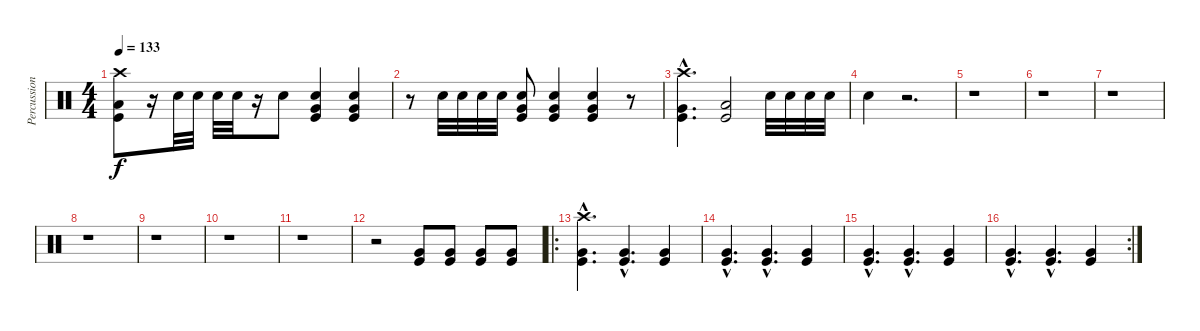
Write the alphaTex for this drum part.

\track ("Percussion" "Percussion") {instrument percussion}
\staff {score}
\articulation defaults
\ts (4 4)
\tempo 133
\clef neutral
\ks c
("Crash high (hit)" "Low Floor Tom (hit)" "Kick (hit)").8{dy f} r.16 "Snare (hit) 2".32 "Snare (hit) 2".32 "Snare (hit) 2".32 "Snare (hit) 2".32 r.16 "Snare (hit) 2".8 ("Snare (hit) 2" "Very Low Tom (hit)" "Kick (hit)").4 ("Snare (hit) 2" "Very Low Tom (hit)" "Kick (hit)").4 |
r.8 "Snare (hit) 2".32 "Snare (hit) 2".32 "Snare (hit) 2".32 "Snare (hit) 2".32 ("Snare (hit) 2" "Very Low Tom (hit)" "Kick (hit)").8 ("Snare (hit) 2" "Very Low Tom (hit)" "Kick (hit)").4 ("Snare (hit) 2" "Very Low Tom (hit)" "Kick (hit)").4 r.8 |
("Crash high (hit)"{hac} "Very Low Tom (hit)"{hac} "Kick (hit)"{hac}).4{d} ("Low Floor Tom (hit)" "Kick (hit)").2 "Snare (hit) 2".32 "Snare (hit) 2".32 "Snare (hit) 2".32 "Snare (hit) 2".32 |
"Snare (hit) 2".4 r.2{d} |
r.1 |
r.1 |
r.1 |
r.1 |
r.1 |
r.1 |
r.1 |
r.2 ("Very Low Tom (hit)" "Kick (hit)").8 ("Very Low Tom (hit)" "Kick (hit)").8 ("Very Low Tom (hit)" "Kick (hit)").8 ("Very Low Tom (hit)" "Kick (hit)").8 |
\ro
("Crash high (hit)"{hac} "Very Low Tom (hit)"{hac} "Kick (hit)"{hac}).4{d} ("Very Low Tom (hit)"{hac} "Kick (hit)"{hac}).4{d} ("Very Low Tom (hit)" "Kick (hit)").4 |
("Very Low Tom (hit)"{hac} "Kick (hit)"{hac}).4{d} ("Very Low Tom (hit)"{hac} "Kick (hit)"{hac}).4{d} ("Very Low Tom (hit)" "Kick (hit)").4 |
("Very Low Tom (hit)"{hac} "Kick (hit)"{hac}).4{d} ("Very Low Tom (hit)"{hac} "Kick (hit)"{hac}).4{d} ("Very Low Tom (hit)" "Kick (hit)").4 |
\rc 2
("Very Low Tom (hit)"{hac} "Kick (hit)"{hac}).4{d} ("Very Low Tom (hit)"{hac} "Kick (hit)"{hac}).4{d} ("Very Low Tom (hit)" "Kick (hit)").4
